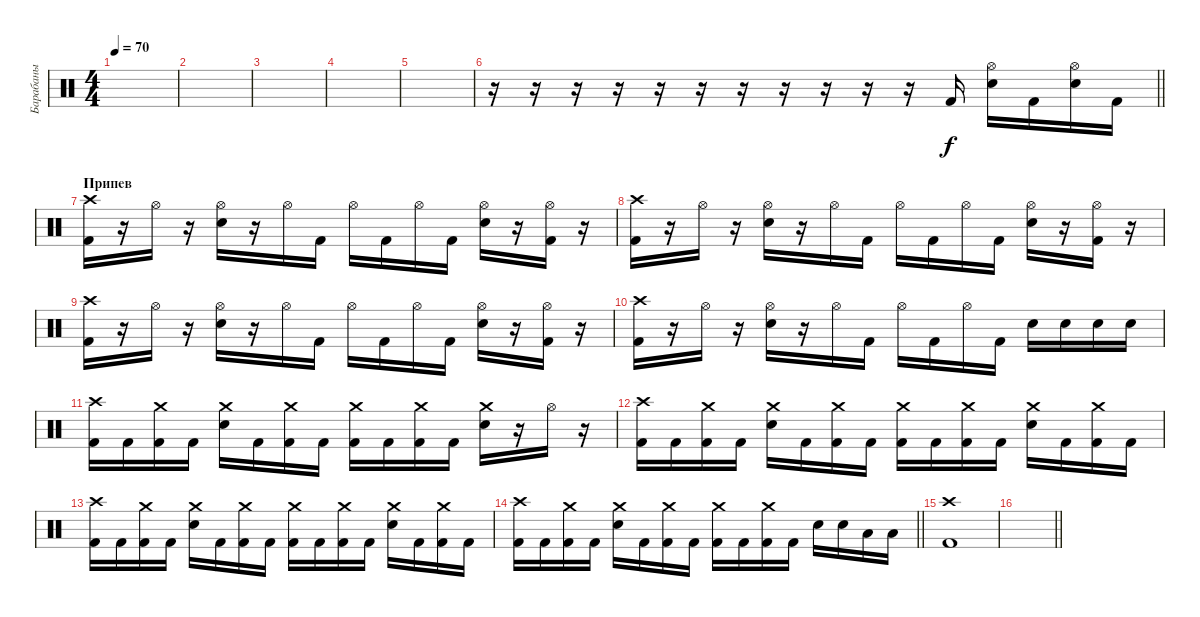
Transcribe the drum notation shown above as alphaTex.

\track ("Барабаны" "Барабаны") {instrument percussion}
\staff {score}
\articulation defaults
\ts (4 4)
\tempo 70
\clef neutral
\ks c
|
|
|
|
|
\barLineRight lightlight
r.16 r.16 r.16 r.16 r.16 r.16 r.16 r.16 r.16 r.16 r.16 "Kick (hit) 2".16 ("Hi-Hat (open)" "Snare (hit) 2").16 "Kick (hit) 2".16 ("Hi-Hat (open)" "Snare (hit) 2").16 "Kick (hit) 2".16 |
\section ("" "Припев")
("Crash high (hit)" "Kick (hit) 2").16 r.16 "Hi-Hat (open)".16 r.16 ("Hi-Hat (open)" "Snare (hit) 2").16 r.16 "Hi-Hat (open)".16 "Kick (hit) 2".16 "Hi-Hat (open)".16 "Kick (hit) 2".16 "Hi-Hat (open)".16 "Kick (hit) 2".16 ("Hi-Hat (open)" "Snare (hit) 2").16 r.16 ("Hi-Hat (open)" "Kick (hit) 2").16 r.16 |
("Crash high (hit)" "Kick (hit) 2").16 r.16 "Hi-Hat (open)".16 r.16 ("Hi-Hat (open)" "Snare (hit) 2").16 r.16 "Hi-Hat (open)".16 "Kick (hit) 2".16 "Hi-Hat (open)".16 "Kick (hit) 2".16 "Hi-Hat (open)".16 "Kick (hit) 2".16 ("Hi-Hat (open)" "Snare (hit) 2").16 r.16 ("Hi-Hat (open)" "Kick (hit) 2").16 r.16 |
("Crash high (hit)" "Kick (hit) 2").16 r.16 "Hi-Hat (open)".16 r.16 ("Hi-Hat (open)" "Snare (hit) 2").16 r.16 "Hi-Hat (open)".16 "Kick (hit) 2".16 "Hi-Hat (open)".16 "Kick (hit) 2".16 "Hi-Hat (open)".16 "Kick (hit) 2".16 ("Hi-Hat (open)" "Snare (hit) 2").16 r.16 ("Hi-Hat (open)" "Kick (hit) 2").16 r.16 |
("Crash high (hit)" "Kick (hit) 2").16 r.16 "Hi-Hat (open)".16 r.16 ("Hi-Hat (open)" "Snare (hit) 2").16 r.16 "Hi-Hat (open)".16 "Kick (hit) 2".16 "Hi-Hat (open)".16 "Kick (hit) 2".16 "Hi-Hat (open)".16 "Kick (hit) 2".16 "Snare (hit) 2".16 "Snare (hit) 2".16 "Snare (hit) 2".16 "Snare (hit) 2".16 |
("Crash high (hit)" "Kick (hit) 2").16 "Kick (hit) 2".16 ("Crash medium (hit)" "Kick (hit) 2").16 "Kick (hit) 2".16 ("Crash medium (hit)" "Snare (hit) 2").16 "Kick (hit) 2".16 ("Crash medium (hit)" "Kick (hit) 2").16 "Kick (hit) 2".16 ("Crash medium (hit)" "Kick (hit) 2").16 "Kick (hit) 2".16 ("Crash medium (hit)" "Kick (hit) 2").16 "Kick (hit) 2".16 ("Crash medium (hit)" "Snare (hit) 2").16 r.16 "Hi-Hat (open)".16 r.16 |
("Crash high (hit)" "Kick (hit) 2").16 "Kick (hit) 2".16 ("Crash medium (hit)" "Kick (hit) 2").16 "Kick (hit) 2".16 ("Crash medium (hit)" "Snare (hit) 2").16 "Kick (hit) 2".16 ("Crash medium (hit)" "Kick (hit) 2").16 "Kick (hit) 2".16 ("Crash medium (hit)" "Kick (hit) 2").16 "Kick (hit) 2".16 ("Crash medium (hit)" "Kick (hit) 2").16 "Kick (hit) 2".16 ("Crash medium (hit)" "Snare (hit) 2").16 "Kick (hit) 2".16 ("Crash medium (hit)" "Kick (hit) 2").16 "Kick (hit) 2".16 |
("Crash high (hit)" "Kick (hit) 2").16 "Kick (hit) 2".16 ("Crash medium (hit)" "Kick (hit) 2").16 "Kick (hit) 2".16 ("Crash medium (hit)" "Snare (hit) 2").16 "Kick (hit) 2".16 ("Crash medium (hit)" "Kick (hit) 2").16 "Kick (hit) 2".16 ("Crash medium (hit)" "Kick (hit) 2").16 "Kick (hit) 2".16 ("Crash medium (hit)" "Kick (hit) 2").16 "Kick (hit) 2".16 ("Crash medium (hit)" "Snare (hit) 2").16 "Kick (hit) 2".16 ("Crash medium (hit)" "Kick (hit) 2").16 "Kick (hit) 2".16 |
\barLineRight lightlight
("Crash high (hit)" "Kick (hit) 2").16 "Kick (hit) 2".16 ("Crash medium (hit)" "Kick (hit) 2").16 "Kick (hit) 2".16 ("Crash medium (hit)" "Snare (hit) 2").16 "Kick (hit) 2".16 ("Crash medium (hit)" "Kick (hit) 2").16 "Kick (hit) 2".16 ("Crash medium (hit)" "Kick (hit) 2").16 "Kick (hit) 2".16 ("Crash medium (hit)" "Kick (hit) 2").16 "Kick (hit) 2".16 "Snare (hit) 2".16 "Snare (hit) 2".16 "Low Tom (hit)".16 "Low Tom (hit)".16 |
("Crash high (hit)" "Kick (hit) 2").1 |
\barLineRight lightlight
